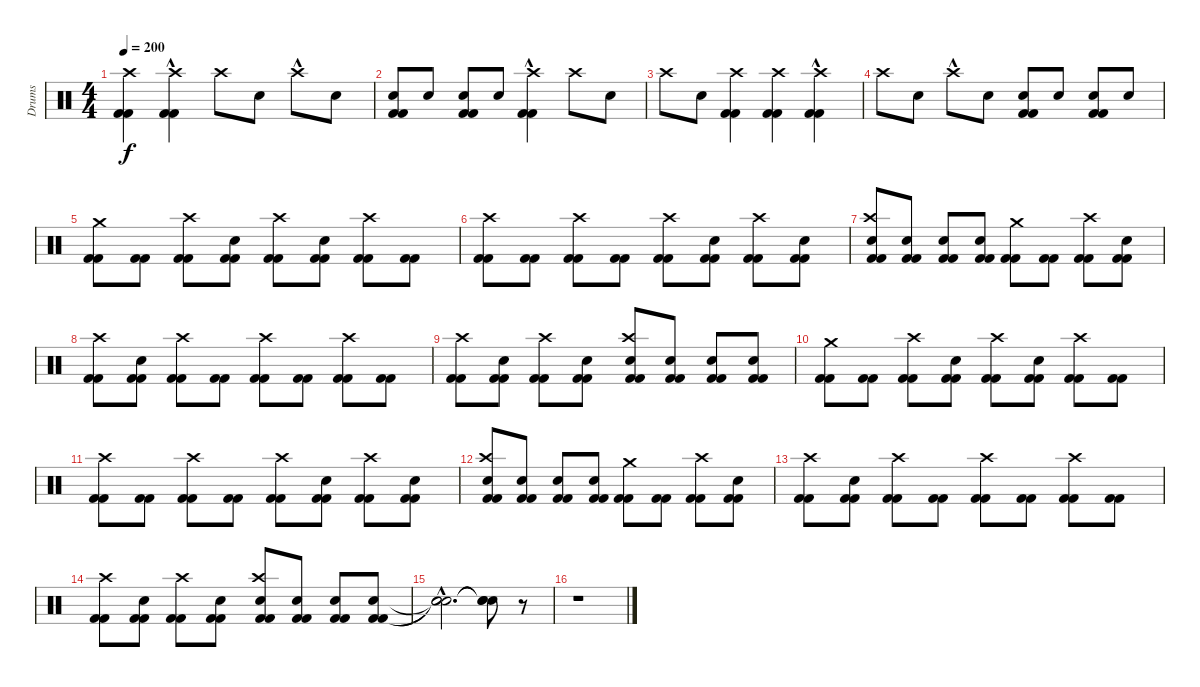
\track ("Drums" "Drums") {instrument percussion}
\staff {score}
\articulation defaults
\ts (4 4)
\tempo 200
\clef neutral
\ks c
("Kick (hit) 2" "Kick (hit) 2" "Crash high (hit)").4{dy f} ("Kick (hit) 2"{hac} "Kick (hit) 2"{hac} "Crash high (hit)").4 "Crash high (hit)".8 "Electric Snare (hit)".8 "Crash high (hit)"{hac}.8 "Electric Snare (hit)".8 |
("Kick (hit) 2" "Kick (hit) 2" "Electric Snare (hit)").8 "Electric Snare (hit)".8 ("Kick (hit) 2" "Kick (hit) 2" "Electric Snare (hit)").8 "Electric Snare (hit)".8 ("Kick (hit) 2"{hac} "Kick (hit) 2"{hac} "Crash high (hit)").4 "Crash high (hit)".8 "Electric Snare (hit)".8 |
"Crash high (hit)".8 "Electric Snare (hit)".8 ("Kick (hit) 2" "Kick (hit) 2" "Crash high (hit)").4 ("Kick (hit) 2" "Kick (hit) 2" "Crash high (hit)").4 ("Kick (hit) 2"{hac} "Kick (hit) 2"{hac} "Crash high (hit)").4 |
"Crash high (hit)".8 "Electric Snare (hit)".8 "Crash high (hit)"{hac}.8 "Electric Snare (hit)".8 ("Kick (hit) 2" "Kick (hit) 2" "Electric Snare (hit)").8 "Electric Snare (hit)".8 ("Kick (hit) 2" "Kick (hit) 2" "Electric Snare (hit)").8 "Electric Snare (hit)".8 |
("Kick (hit) 2" "Kick (hit) 2" "Crash medium (hit)").8 ("Kick (hit) 2" "Kick (hit) 2").8 ("Kick (hit) 2" "Kick (hit) 2" "Crash high (hit)").8 ("Kick (hit) 2" "Kick (hit) 2" "Electric Snare (hit)").8 ("Kick (hit) 2" "Kick (hit) 2" "Crash high (hit)").8 ("Kick (hit) 2" "Kick (hit) 2" "Electric Snare (hit)").8 ("Kick (hit) 2" "Kick (hit) 2" "Crash high (hit)").8 ("Kick (hit) 2" "Kick (hit) 2").8 |
("Kick (hit) 2" "Kick (hit) 2" "Crash high (hit)").8 ("Kick (hit) 2" "Kick (hit) 2").8 ("Kick (hit) 2" "Kick (hit) 2" "Crash high (hit)").8 ("Kick (hit) 2" "Kick (hit) 2").8 ("Kick (hit) 2" "Kick (hit) 2" "Crash high (hit)").8 ("Kick (hit) 2" "Kick (hit) 2" "Electric Snare (hit)").8 ("Kick (hit) 2" "Kick (hit) 2" "Crash high (hit)").8 ("Kick (hit) 2" "Kick (hit) 2" "Electric Snare (hit)").8 |
("Kick (hit) 2" "Kick (hit) 2" "Electric Snare (hit)" "Crash high (hit)").8 ("Kick (hit) 2" "Kick (hit) 2" "Electric Snare (hit)").8 ("Kick (hit) 2" "Kick (hit) 2" "Electric Snare (hit)").8 ("Kick (hit) 2" "Kick (hit) 2" "Electric Snare (hit)").8 ("Kick (hit) 2" "Kick (hit) 2" "Crash medium (hit)").8 ("Kick (hit) 2" "Kick (hit) 2").8 ("Kick (hit) 2" "Kick (hit) 2" "Crash high (hit)").8 ("Kick (hit) 2" "Kick (hit) 2" "Electric Snare (hit)").8 |
("Kick (hit) 2" "Kick (hit) 2" "Crash high (hit)").8 ("Kick (hit) 2" "Kick (hit) 2" "Electric Snare (hit)").8 ("Kick (hit) 2" "Kick (hit) 2" "Crash high (hit)").8 ("Kick (hit) 2" "Kick (hit) 2").8 ("Kick (hit) 2" "Kick (hit) 2" "Crash high (hit)").8 ("Kick (hit) 2" "Kick (hit) 2").8 ("Kick (hit) 2" "Kick (hit) 2" "Crash high (hit)").8 ("Kick (hit) 2" "Kick (hit) 2").8 |
("Kick (hit) 2" "Kick (hit) 2" "Crash high (hit)").8 ("Kick (hit) 2" "Kick (hit) 2" "Electric Snare (hit)").8 ("Kick (hit) 2" "Kick (hit) 2" "Crash high (hit)").8 ("Kick (hit) 2" "Kick (hit) 2" "Electric Snare (hit)").8 ("Kick (hit) 2" "Kick (hit) 2" "Electric Snare (hit)" "Crash high (hit)").8 ("Kick (hit) 2" "Kick (hit) 2" "Electric Snare (hit)").8 ("Kick (hit) 2" "Kick (hit) 2" "Electric Snare (hit)").8 ("Kick (hit) 2" "Kick (hit) 2" "Electric Snare (hit)").8 |
("Kick (hit) 2" "Kick (hit) 2" "Crash medium (hit)").8 ("Kick (hit) 2" "Kick (hit) 2").8 ("Kick (hit) 2" "Kick (hit) 2" "Crash high (hit)").8 ("Kick (hit) 2" "Kick (hit) 2" "Electric Snare (hit)").8 ("Kick (hit) 2" "Kick (hit) 2" "Crash high (hit)").8 ("Kick (hit) 2" "Kick (hit) 2" "Electric Snare (hit)").8 ("Kick (hit) 2" "Kick (hit) 2" "Crash high (hit)").8 ("Kick (hit) 2" "Kick (hit) 2").8 |
("Kick (hit) 2" "Kick (hit) 2" "Crash high (hit)").8 ("Kick (hit) 2" "Kick (hit) 2").8 ("Kick (hit) 2" "Kick (hit) 2" "Crash high (hit)").8 ("Kick (hit) 2" "Kick (hit) 2").8 ("Kick (hit) 2" "Kick (hit) 2" "Crash high (hit)").8 ("Kick (hit) 2" "Kick (hit) 2" "Electric Snare (hit)").8 ("Kick (hit) 2" "Kick (hit) 2" "Crash high (hit)").8 ("Kick (hit) 2" "Kick (hit) 2" "Electric Snare (hit)").8 |
("Kick (hit) 2" "Kick (hit) 2" "Electric Snare (hit)" "Crash high (hit)").8 ("Kick (hit) 2" "Kick (hit) 2" "Electric Snare (hit)").8 ("Kick (hit) 2" "Kick (hit) 2" "Electric Snare (hit)").8 ("Kick (hit) 2" "Kick (hit) 2" "Electric Snare (hit)").8 ("Kick (hit) 2" "Kick (hit) 2" "Crash medium (hit)").8 ("Kick (hit) 2" "Kick (hit) 2").8 ("Kick (hit) 2" "Kick (hit) 2" "Crash high (hit)").8 ("Kick (hit) 2" "Kick (hit) 2" "Electric Snare (hit)").8 |
("Kick (hit) 2" "Kick (hit) 2" "Crash high (hit)").8 ("Kick (hit) 2" "Kick (hit) 2" "Electric Snare (hit)").8 ("Kick (hit) 2" "Kick (hit) 2" "Crash high (hit)").8 ("Kick (hit) 2" "Kick (hit) 2").8 ("Kick (hit) 2" "Kick (hit) 2" "Crash high (hit)").8 ("Kick (hit) 2" "Kick (hit) 2").8 ("Kick (hit) 2" "Kick (hit) 2" "Crash high (hit)").8 ("Kick (hit) 2" "Kick (hit) 2").8 |
("Kick (hit) 2" "Kick (hit) 2" "Crash high (hit)").8 ("Kick (hit) 2" "Kick (hit) 2" "Electric Snare (hit)").8 ("Kick (hit) 2" "Kick (hit) 2" "Crash high (hit)").8 ("Kick (hit) 2" "Kick (hit) 2" "Electric Snare (hit)").8 ("Kick (hit) 2" "Kick (hit) 2" "Electric Snare (hit)" "Crash high (hit)").8 ("Kick (hit) 2" "Kick (hit) 2" "Electric Snare (hit)").8 ("Kick (hit) 2" "Kick (hit) 2" "Electric Snare (hit)").8 ("Kick (hit) 2" "Kick (hit) 2" "Electric Snare (hit)").8 |
("Snare (hit)"{hac t} "Snare (hit)"{hac t} "Snare (hit)"{hac t}).2{d} ("Snare (hit)"{t} "Snare (hit)"{t} "Snare (hit)"{t}).8 r.8 |
r.1
